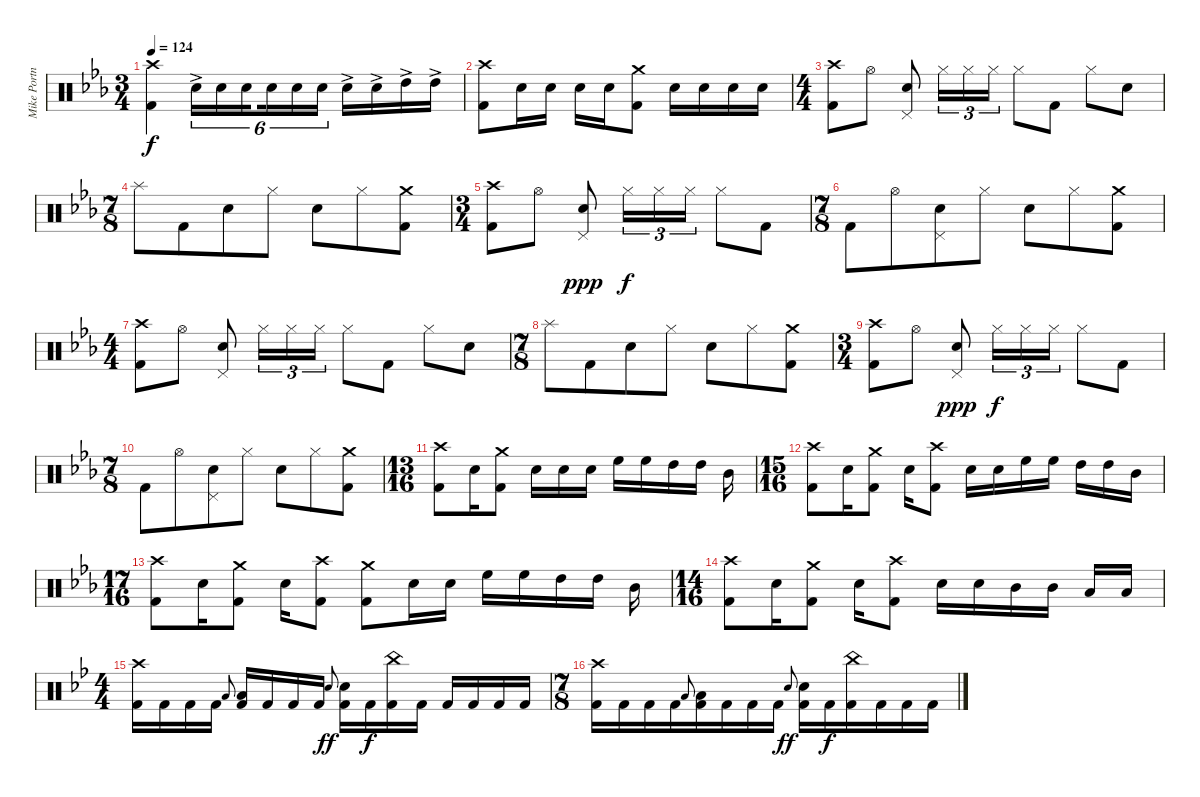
\track ("Mike Portnoy" "Mike Portn") {instrument percussion}
\staff {score}
\articulation defaults
\ts (3 4)
\tempo 124
\clef neutral
\ks eb
("Crash high (hit)" "Kick (hit) 2").4{dy f} "Electric Snare (hit)"{ac}.16{tu (6 4)} "Electric Snare (hit)".16{tu (6 4)} "Electric Snare (hit)".16{tu (6 4) beam splitsecondary} "Electric Snare (hit)".16{tu (6 4)} "Electric Snare (hit)".16{tu (6 4)} "Electric Snare (hit)".16{tu (6 4)} "Electric Snare (hit)"{ac}.16 "Electric Snare (hit)"{ac}.16 "High Tom (hit)"{ac}.16 "High Tom (hit)"{ac}.16 |
("Crash high (hit)" "Kick (hit) 2").8 "Electric Snare (hit)".16 "Electric Snare (hit)".16 "Electric Snare (hit)".16 "Electric Snare (hit)".16 ("Crash medium (hit)" "Kick (hit) 2").8 "Electric Snare (hit)".16 "Electric Snare (hit)".16 "Electric Snare (hit)".16 "Electric Snare (hit)".16 |
\ts (4 4)
("Crash high (hit)" "Kick (hit) 2").8 "Hi-Hat (open)".8 ("Pedal Hi-Hat (hit)" "Electric Snare (hit)").8 "Hi-Hat (closed)".16{tu (3 2)} "Hi-Hat (closed)".16{tu (3 2)} "Hi-Hat (closed)".16{tu (3 2)} "Hi-Hat (closed)".8 "Kick (hit) 2".8 "Hi-Hat (closed)".8 "Electric Snare (hit)".8 |
\ts (7 8)
"Splash (hit)".8 "Kick (hit) 2".8 "Electric Snare (hit)".8 "Hi-Hat (closed)".8 "Electric Snare (hit)".8 "Hi-Hat (closed)".8 ("Crash medium (hit)" "Kick (hit) 2").8 |
\ts (3 4)
("Crash high (hit)" "Kick (hit) 2").8 "Hi-Hat (open)".8 ("Pedal Hi-Hat (hit)" "Electric Snare (hit)").8{dy ppp} "Hi-Hat (closed)".16{tu (3 2) dy f} "Hi-Hat (closed)".16{tu (3 2)} "Hi-Hat (closed)".16{tu (3 2)} "Hi-Hat (closed)".8 "Kick (hit) 2".8 |
\ts (7 8)
"Kick (hit) 2".8 "Hi-Hat (open)".8 ("Pedal Hi-Hat (hit)" "Electric Snare (hit)").8 "Hi-Hat (closed)".8 "Electric Snare (hit)".8 "Hi-Hat (closed)".8 ("Crash medium (hit)" "Kick (hit) 2").8 |
\ts (4 4)
("Crash high (hit)" "Kick (hit) 2").8 "Hi-Hat (open)".8 ("Pedal Hi-Hat (hit)" "Electric Snare (hit)").8 "Hi-Hat (closed)".16{tu (3 2)} "Hi-Hat (closed)".16{tu (3 2)} "Hi-Hat (closed)".16{tu (3 2)} "Hi-Hat (closed)".8 "Kick (hit) 2".8 "Hi-Hat (closed)".8 "Electric Snare (hit)".8 |
\ts (7 8)
"Splash (hit)".8 "Kick (hit) 2".8 "Electric Snare (hit)".8 "Hi-Hat (closed)".8 "Electric Snare (hit)".8 "Hi-Hat (closed)".8 ("Crash medium (hit)" "Kick (hit) 2").8 |
\ts (3 4)
("Crash high (hit)" "Kick (hit) 2").8 "Hi-Hat (open)".8 ("Pedal Hi-Hat (hit)" "Electric Snare (hit)").8{dy ppp} "Hi-Hat (closed)".16{tu (3 2) dy f} "Hi-Hat (closed)".16{tu (3 2)} "Hi-Hat (closed)".16{tu (3 2)} "Hi-Hat (closed)".8 "Kick (hit) 2".8 |
\ts (7 8)
"Kick (hit) 2".8 "Hi-Hat (open)".8 ("Pedal Hi-Hat (hit)" "Electric Snare (hit)").8 "Hi-Hat (closed)".8 "Electric Snare (hit)".8 "Hi-Hat (closed)".8 ("Crash medium (hit)" "Kick (hit) 2").8 |
\ts (13 16)
("Crash high (hit)" "Kick (hit) 2").8 "Electric Snare (hit)".16 ("Crash medium (hit)" "Kick (hit) 2").8 "Electric Snare (hit)".16 "Electric Snare (hit)".16 "Electric Snare (hit)".16 "High Floor Tom (hit)".16 "High Floor Tom (hit)".16 "High Tom (hit)".16 "High Tom (hit)".16 "Mid Tom (hit)".16 |
\ts (15 16)
("Crash high (hit)" "Kick (hit) 2").8 "Electric Snare (hit)".16 ("Crash medium (hit)" "Kick (hit) 2").8 "Electric Snare (hit)".16 ("Crash high (hit)" "Kick (hit) 2").8 "Electric Snare (hit)".16 "Electric Snare (hit)".16 "High Floor Tom (hit)".16 "High Floor Tom (hit)".16 "High Tom (hit)".16 "High Tom (hit)".16 "Mid Tom (hit)".16 |
\ts (17 16)
("Crash high (hit)" "Kick (hit) 2").8 "Electric Snare (hit)".16 ("Crash medium (hit)" "Kick (hit) 2").8 "Electric Snare (hit)".16 ("Crash high (hit)" "Kick (hit) 2").8 ("Crash medium (hit)" "Kick (hit) 2").8 "Electric Snare (hit)".16 "Electric Snare (hit)".16 "High Floor Tom (hit)".16 "High Floor Tom (hit)".16 "High Tom (hit)".16 "High Tom (hit)".16 "Mid Tom (hit)".16 |
\ts (14 16)
("Crash high (hit)" "Kick (hit) 2").8 "Electric Snare (hit)".16 ("Crash medium (hit)" "Kick (hit) 2").8 "Electric Snare (hit)".16 ("Crash high (hit)" "Kick (hit) 2").8 "Electric Snare (hit)".16 "Electric Snare (hit)".16 "Mid Tom (hit)".16 "Mid Tom (hit)".16 "Low Tom (hit)".16 "Low Tom (hit)".16 |
\ts (4 4)
\ks bb
("Crash high (hit)" "Kick (hit) 2").16 "Kick (hit) 2".16 "Kick (hit) 2".16 "Kick (hit) 2".16 "Low Tom (hit)".8{gr onbeat} ("Low Tom (hit)" "Kick (hit) 2").16 "Kick (hit) 2".16 "Kick (hit) 2".16 "Kick (hit) 2".16 "Electric Snare (hit)".8{gr onbeat dy ff} ("Electric Snare (hit)" "Kick (hit) 2").16 "Kick (hit) 2".16{dy f} ("China (hit)" "Kick (hit) 2").16 "Kick (hit) 2".16 "Kick (hit) 2".16 "Kick (hit) 2".16 "Kick (hit) 2".16 "Kick (hit) 2".16 |
\ts (7 8)
("Crash high (hit)" "Kick (hit) 2").16 "Kick (hit) 2".16 "Kick (hit) 2".16 "Kick (hit) 2".16 "Low Tom (hit)".8{gr onbeat} ("Low Tom (hit)" "Kick (hit) 2").16 "Kick (hit) 2".16 "Kick (hit) 2".16 "Kick (hit) 2".16 "Electric Snare (hit)".8{gr onbeat dy ff} ("Electric Snare (hit)" "Kick (hit) 2").16 "Kick (hit) 2".16{dy f} ("China (hit)" "Kick (hit) 2").16 "Kick (hit) 2".16 "Kick (hit) 2".16 "Kick (hit) 2".16
